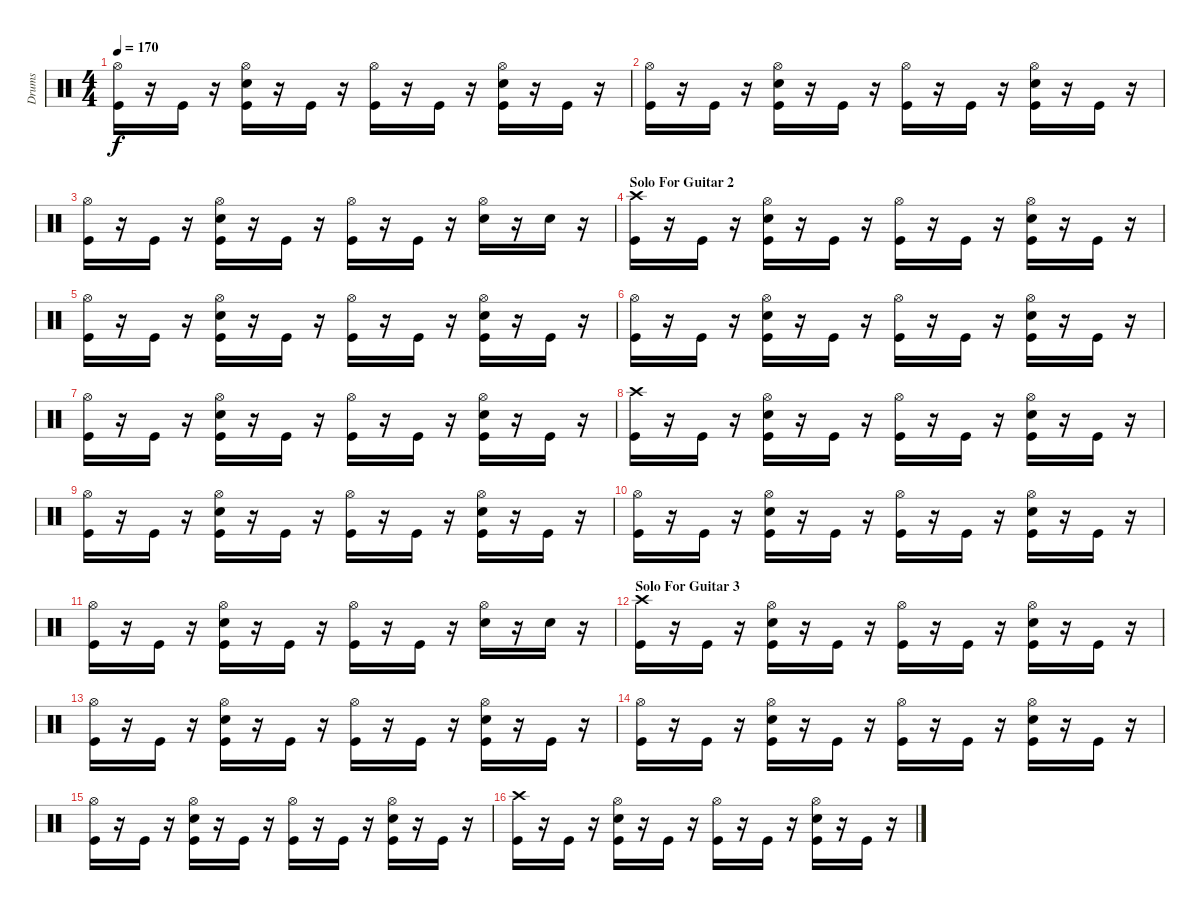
\track ("Drums" "Drums") {instrument percussion}
\staff {score}
\articulation defaults
\ts (4 4)
\tempo 170
\clef neutral
\ks c
("Hi-Hat (open)" "Kick (hit)").16{dy f} r.16 "Kick (hit)".16 r.16 ("Hi-Hat (open)" "Snare (hit) 2" "Kick (hit)").16 r.16 "Kick (hit)".16 r.16 ("Hi-Hat (open)" "Kick (hit)").16 r.16 "Kick (hit)".16 r.16 ("Hi-Hat (open)" "Snare (hit) 2" "Kick (hit)").16 r.16 "Kick (hit)".16 r.16 |
("Hi-Hat (open)" "Kick (hit)").16 r.16 "Kick (hit)".16 r.16 ("Hi-Hat (open)" "Snare (hit) 2" "Kick (hit)").16 r.16 "Kick (hit)".16 r.16 ("Hi-Hat (open)" "Kick (hit)").16 r.16 "Kick (hit)".16 r.16 ("Hi-Hat (open)" "Snare (hit) 2" "Kick (hit)").16 r.16 "Kick (hit)".16 r.16 |
("Hi-Hat (open)" "Kick (hit)").16 r.16 "Kick (hit)".16 r.16 ("Hi-Hat (open)" "Snare (hit) 2" "Kick (hit)").16 r.16 "Kick (hit)".16 r.16 ("Hi-Hat (open)" "Kick (hit)").16 r.16 "Kick (hit)".16 r.16 ("Hi-Hat (open)" "Snare (hit) 2").16 r.16 "Snare (hit) 2".16 r.16 |
\section ("" "Solo For Guitar 2")
("Crash high (hit)" "Kick (hit)").16 r.16 "Kick (hit)".16 r.16 ("Hi-Hat (open)" "Snare (hit) 2" "Kick (hit)").16 r.16 "Kick (hit)".16 r.16 ("Hi-Hat (open)" "Kick (hit)").16 r.16 "Kick (hit)".16 r.16 ("Hi-Hat (open)" "Snare (hit) 2" "Kick (hit)").16 r.16 "Kick (hit)".16 r.16 |
("Hi-Hat (open)" "Kick (hit)").16 r.16 "Kick (hit)".16 r.16 ("Hi-Hat (open)" "Snare (hit) 2" "Kick (hit)").16 r.16 "Kick (hit)".16 r.16 ("Hi-Hat (open)" "Kick (hit)").16 r.16 "Kick (hit)".16 r.16 ("Hi-Hat (open)" "Snare (hit) 2" "Kick (hit)").16 r.16 "Kick (hit)".16 r.16 |
("Hi-Hat (open)" "Kick (hit)").16 r.16 "Kick (hit)".16 r.16 ("Hi-Hat (open)" "Snare (hit) 2" "Kick (hit)").16 r.16 "Kick (hit)".16 r.16 ("Hi-Hat (open)" "Kick (hit)").16 r.16 "Kick (hit)".16 r.16 ("Hi-Hat (open)" "Snare (hit) 2" "Kick (hit)").16 r.16 "Kick (hit)".16 r.16 |
("Hi-Hat (open)" "Kick (hit)").16 r.16 "Kick (hit)".16 r.16 ("Hi-Hat (open)" "Snare (hit) 2" "Kick (hit)").16 r.16 "Kick (hit)".16 r.16 ("Hi-Hat (open)" "Kick (hit)").16 r.16 "Kick (hit)".16 r.16 ("Hi-Hat (open)" "Snare (hit) 2" "Kick (hit)").16 r.16 "Kick (hit)".16 r.16 |
("Crash high (hit)" "Kick (hit)").16 r.16 "Kick (hit)".16 r.16 ("Hi-Hat (open)" "Snare (hit) 2" "Kick (hit)").16 r.16 "Kick (hit)".16 r.16 ("Hi-Hat (open)" "Kick (hit)").16 r.16 "Kick (hit)".16 r.16 ("Hi-Hat (open)" "Snare (hit) 2" "Kick (hit)").16 r.16 "Kick (hit)".16 r.16 |
("Hi-Hat (open)" "Kick (hit)").16 r.16 "Kick (hit)".16 r.16 ("Hi-Hat (open)" "Snare (hit) 2" "Kick (hit)").16 r.16 "Kick (hit)".16 r.16 ("Hi-Hat (open)" "Kick (hit)").16 r.16 "Kick (hit)".16 r.16 ("Hi-Hat (open)" "Snare (hit) 2" "Kick (hit)").16 r.16 "Kick (hit)".16 r.16 |
("Hi-Hat (open)" "Kick (hit)").16 r.16 "Kick (hit)".16 r.16 ("Hi-Hat (open)" "Snare (hit) 2" "Kick (hit)").16 r.16 "Kick (hit)".16 r.16 ("Hi-Hat (open)" "Kick (hit)").16 r.16 "Kick (hit)".16 r.16 ("Hi-Hat (open)" "Snare (hit) 2" "Kick (hit)").16 r.16 "Kick (hit)".16 r.16 |
("Hi-Hat (open)" "Kick (hit)").16 r.16 "Kick (hit)".16 r.16 ("Hi-Hat (open)" "Snare (hit) 2" "Kick (hit)").16 r.16 "Kick (hit)".16 r.16 ("Hi-Hat (open)" "Kick (hit)").16 r.16 "Kick (hit)".16 r.16 ("Hi-Hat (open)" "Snare (hit) 2").16 r.16 "Snare (hit) 2".16 r.16 |
\section ("" "Solo For Guitar 3")
("Crash high (hit)" "Kick (hit)").16 r.16 "Kick (hit)".16 r.16 ("Hi-Hat (open)" "Snare (hit) 2" "Kick (hit)").16 r.16 "Kick (hit)".16 r.16 ("Hi-Hat (open)" "Kick (hit)").16 r.16 "Kick (hit)".16 r.16 ("Hi-Hat (open)" "Snare (hit) 2" "Kick (hit)").16 r.16 "Kick (hit)".16 r.16 |
("Hi-Hat (open)" "Kick (hit)").16 r.16 "Kick (hit)".16 r.16 ("Hi-Hat (open)" "Snare (hit) 2" "Kick (hit)").16 r.16 "Kick (hit)".16 r.16 ("Hi-Hat (open)" "Kick (hit)").16 r.16 "Kick (hit)".16 r.16 ("Hi-Hat (open)" "Snare (hit) 2" "Kick (hit)").16 r.16 "Kick (hit)".16 r.16 |
("Hi-Hat (open)" "Kick (hit)").16 r.16 "Kick (hit)".16 r.16 ("Hi-Hat (open)" "Snare (hit) 2" "Kick (hit)").16 r.16 "Kick (hit)".16 r.16 ("Hi-Hat (open)" "Kick (hit)").16 r.16 "Kick (hit)".16 r.16 ("Hi-Hat (open)" "Snare (hit) 2" "Kick (hit)").16 r.16 "Kick (hit)".16 r.16 |
("Hi-Hat (open)" "Kick (hit)").16 r.16 "Kick (hit)".16 r.16 ("Hi-Hat (open)" "Snare (hit) 2" "Kick (hit)").16 r.16 "Kick (hit)".16 r.16 ("Hi-Hat (open)" "Kick (hit)").16 r.16 "Kick (hit)".16 r.16 ("Hi-Hat (open)" "Snare (hit) 2" "Kick (hit)").16 r.16 "Kick (hit)".16 r.16 |
("Crash high (hit)" "Kick (hit)").16 r.16 "Kick (hit)".16 r.16 ("Hi-Hat (open)" "Snare (hit) 2" "Kick (hit)").16 r.16 "Kick (hit)".16 r.16 ("Hi-Hat (open)" "Kick (hit)").16 r.16 "Kick (hit)".16 r.16 ("Hi-Hat (open)" "Snare (hit) 2" "Kick (hit)").16 r.16 "Kick (hit)".16 r.16
